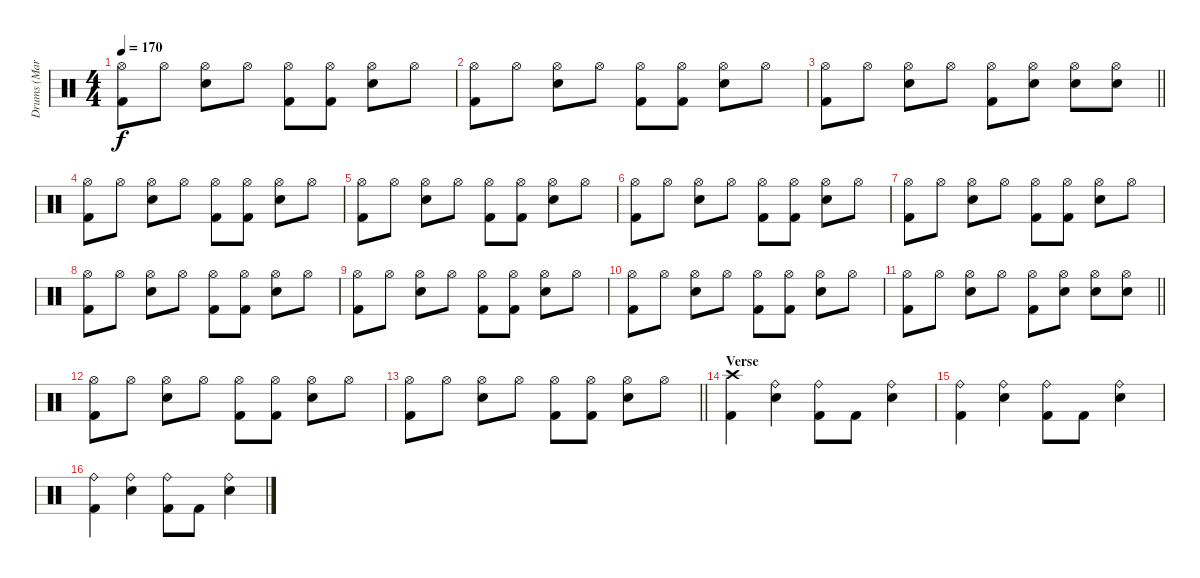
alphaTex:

\track ("Drums (Marky)" "Drums (Mar") {instrument percussion}
\staff {score}
\articulation defaults
\ts (4 4)
\tempo 170
\clef neutral
\ks c
("Hi-Hat (open)" "Kick (hit) 2").8{dy f} "Hi-Hat (open)".8 ("Hi-Hat (open)" "Snare (hit) 2").8 "Hi-Hat (open)".8 ("Hi-Hat (open)" "Kick (hit) 2").8 ("Hi-Hat (open)" "Kick (hit) 2").8 ("Hi-Hat (open)" "Snare (hit) 2").8 "Hi-Hat (open)".8 |
("Hi-Hat (open)" "Kick (hit) 2").8 "Hi-Hat (open)".8 ("Hi-Hat (open)" "Snare (hit) 2").8 "Hi-Hat (open)".8 ("Hi-Hat (open)" "Kick (hit) 2").8 ("Hi-Hat (open)" "Kick (hit) 2").8 ("Hi-Hat (open)" "Snare (hit) 2").8 "Hi-Hat (open)".8 |
\barLineRight lightlight
("Hi-Hat (open)" "Kick (hit) 2").8 "Hi-Hat (open)".8 ("Hi-Hat (open)" "Snare (hit) 2").8 "Hi-Hat (open)".8 ("Hi-Hat (open)" "Kick (hit) 2").8 ("Hi-Hat (open)" "Snare (hit) 2").8 ("Hi-Hat (open)" "Snare (hit) 2").8 ("Hi-Hat (open)" "Snare (hit) 2").8 |
("Hi-Hat (open)" "Kick (hit) 2").8 "Hi-Hat (open)".8 ("Hi-Hat (open)" "Snare (hit) 2").8 "Hi-Hat (open)".8 ("Hi-Hat (open)" "Kick (hit) 2").8 ("Hi-Hat (open)" "Kick (hit) 2").8 ("Hi-Hat (open)" "Snare (hit) 2").8 "Hi-Hat (open)".8 |
("Hi-Hat (open)" "Kick (hit) 2").8 "Hi-Hat (open)".8 ("Hi-Hat (open)" "Snare (hit) 2").8 "Hi-Hat (open)".8 ("Hi-Hat (open)" "Kick (hit) 2").8 ("Hi-Hat (open)" "Kick (hit) 2").8 ("Hi-Hat (open)" "Snare (hit) 2").8 "Hi-Hat (open)".8 |
("Hi-Hat (open)" "Kick (hit) 2").8 "Hi-Hat (open)".8 ("Hi-Hat (open)" "Snare (hit) 2").8 "Hi-Hat (open)".8 ("Hi-Hat (open)" "Kick (hit) 2").8 ("Hi-Hat (open)" "Kick (hit) 2").8 ("Hi-Hat (open)" "Snare (hit) 2").8 "Hi-Hat (open)".8 |
("Hi-Hat (open)" "Kick (hit) 2").8 "Hi-Hat (open)".8 ("Hi-Hat (open)" "Snare (hit) 2").8 "Hi-Hat (open)".8 ("Hi-Hat (open)" "Kick (hit) 2").8 ("Hi-Hat (open)" "Kick (hit) 2").8 ("Hi-Hat (open)" "Snare (hit) 2").8 "Hi-Hat (open)".8 |
("Hi-Hat (open)" "Kick (hit) 2").8 "Hi-Hat (open)".8 ("Hi-Hat (open)" "Snare (hit) 2").8 "Hi-Hat (open)".8 ("Hi-Hat (open)" "Kick (hit) 2").8 ("Hi-Hat (open)" "Kick (hit) 2").8 ("Hi-Hat (open)" "Snare (hit) 2").8 "Hi-Hat (open)".8 |
("Hi-Hat (open)" "Kick (hit) 2").8 "Hi-Hat (open)".8 ("Hi-Hat (open)" "Snare (hit) 2").8 "Hi-Hat (open)".8 ("Hi-Hat (open)" "Kick (hit) 2").8 ("Hi-Hat (open)" "Kick (hit) 2").8 ("Hi-Hat (open)" "Snare (hit) 2").8 "Hi-Hat (open)".8 |
("Hi-Hat (open)" "Kick (hit) 2").8 "Hi-Hat (open)".8 ("Hi-Hat (open)" "Snare (hit) 2").8 "Hi-Hat (open)".8 ("Hi-Hat (open)" "Kick (hit) 2").8 ("Hi-Hat (open)" "Kick (hit) 2").8 ("Hi-Hat (open)" "Snare (hit) 2").8 "Hi-Hat (open)".8 |
\barLineRight lightlight
("Hi-Hat (open)" "Kick (hit) 2").8 "Hi-Hat (open)".8 ("Hi-Hat (open)" "Snare (hit) 2").8 "Hi-Hat (open)".8 ("Hi-Hat (open)" "Kick (hit) 2").8 ("Hi-Hat (open)" "Snare (hit) 2").8 ("Hi-Hat (open)" "Snare (hit) 2").8 ("Hi-Hat (open)" "Snare (hit) 2").8 |
("Hi-Hat (open)" "Kick (hit) 2").8 "Hi-Hat (open)".8 ("Hi-Hat (open)" "Snare (hit) 2").8 "Hi-Hat (open)".8 ("Hi-Hat (open)" "Kick (hit) 2").8 ("Hi-Hat (open)" "Kick (hit) 2").8 ("Hi-Hat (open)" "Snare (hit) 2").8 "Hi-Hat (open)".8 |
\barLineRight lightlight
("Hi-Hat (open)" "Kick (hit) 2").8 "Hi-Hat (open)".8 ("Hi-Hat (open)" "Snare (hit) 2").8 "Hi-Hat (open)".8 ("Hi-Hat (open)" "Kick (hit) 2").8 ("Hi-Hat (open)" "Kick (hit) 2").8 ("Hi-Hat (open)" "Snare (hit) 2").8 "Hi-Hat (open)".8 |
\section ("" "Verse")
("Crash high (hit)" "Kick (hit) 2").4 ("Ride (bell)" "Snare (hit) 2").4 ("Ride (bell)" "Kick (hit) 2").8 "Kick (hit) 2".8 ("Ride (bell)" "Snare (hit) 2").4 |
("Ride (bell)" "Kick (hit) 2").4 ("Ride (bell)" "Snare (hit) 2").4 ("Ride (bell)" "Kick (hit) 2").8 "Kick (hit) 2".8 ("Ride (bell)" "Snare (hit) 2").4 |
("Ride (bell)" "Kick (hit) 2").4 ("Ride (bell)" "Snare (hit) 2").4 ("Ride (bell)" "Kick (hit) 2").8 "Kick (hit) 2".8 ("Ride (bell)" "Snare (hit) 2").4
